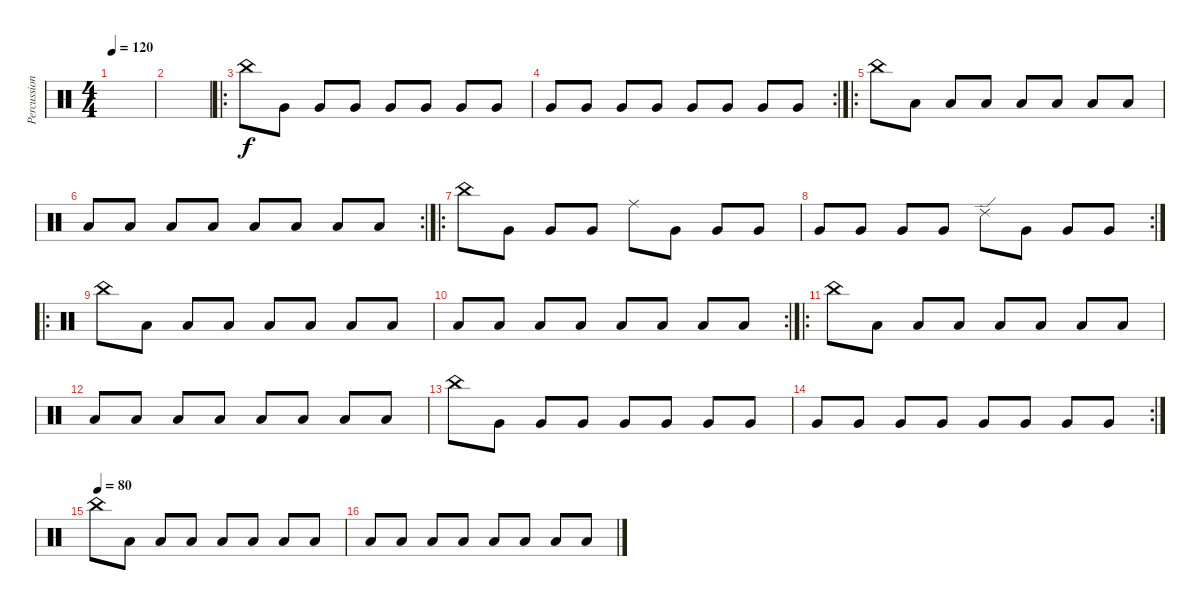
\track ("Percussion" "Percussion") {instrument percussion}
\staff {score}
\articulation defaults
\ts (4 4)
\tempo 120
\clef neutral
\ks c
|
|
\ro "China (hit)".8 "Very Low Tom (hit)".8 "Very Low Tom (hit)".8 "Very Low Tom (hit)".8 "Very Low Tom (hit)".8 "Very Low Tom (hit)".8 "Very Low Tom (hit)".8 "Very Low Tom (hit)".8
|
\rc 2 "Very Low Tom (hit)".8 "Very Low Tom (hit)".8 "Very Low Tom (hit)".8 "Very Low Tom (hit)".8 "Very Low Tom (hit)".8 "Very Low Tom (hit)".8 "Very Low Tom (hit)".8 "Very Low Tom (hit)".8
|
\ro "China (hit)".8 "Low Floor Tom (hit)".8 "Low Floor Tom (hit)".8 "Low Floor Tom (hit)".8 "Low Floor Tom (hit)".8 "Low Floor Tom (hit)".8 "Low Floor Tom (hit)".8 "Low Floor Tom (hit)".8
|
\rc 2 "Low Floor Tom (hit)".8 "Low Floor Tom (hit)".8 "Low Floor Tom (hit)".8 "Low Floor Tom (hit)".8 "Low Floor Tom (hit)".8 "Low Floor Tom (hit)".8 "Low Floor Tom (hit)".8 "Low Floor Tom (hit)".8
|
\ro "China (hit)".8 "Very Low Tom (hit)".8 "Very Low Tom (hit)".8 "Very Low Tom (hit)".8 "Ride (middle)".8 "Very Low Tom (hit)".8 "Very Low Tom (hit)".8 "Very Low Tom (hit)".8
|
\rc 2 "Very Low Tom (hit)".8 "Very Low Tom (hit)".8 "Very Low Tom (hit)".8 "Very Low Tom (hit)".8 "Ride (edge) 2".8 "Very Low Tom (hit)".8 "Very Low Tom (hit)".8 "Very Low Tom (hit)".8
|
\ro "China (hit)".8 "Low Floor Tom (hit)".8 "Low Floor Tom (hit)".8 "Low Floor Tom (hit)".8 "Low Floor Tom (hit)".8 "Low Floor Tom (hit)".8 "Low Floor Tom (hit)".8 "Low Floor Tom (hit)".8
|
\rc 2 "Low Floor Tom (hit)".8 "Low Floor Tom (hit)".8 "Low Floor Tom (hit)".8 "Low Floor Tom (hit)".8 "Low Floor Tom (hit)".8 "Low Floor Tom (hit)".8 "Low Floor Tom (hit)".8 "Low Floor Tom (hit)".8
|
\ro "China (hit)".8 "Low Floor Tom (hit)".8 "Low Floor Tom (hit)".8 "Low Floor Tom (hit)".8 "Low Floor Tom (hit)".8 "Low Floor Tom (hit)".8 "Low Floor Tom (hit)".8 "Low Floor Tom (hit)".8
|
"Low Floor Tom (hit)".8 "Low Floor Tom (hit)".8 "Low Floor Tom (hit)".8 "Low Floor Tom (hit)".8 "Low Floor Tom (hit)".8 "Low Floor Tom (hit)".8 "Low Floor Tom (hit)".8 "Low Floor Tom (hit)".8 |
"China (hit)".8 "Very Low Tom (hit)".8 "Very Low Tom (hit)".8 "Very Low Tom (hit)".8 "Very Low Tom (hit)".8 "Very Low Tom (hit)".8 "Very Low Tom (hit)".8 "Very Low Tom (hit)".8 |
\rc 2 "Very Low Tom (hit)".8 "Very Low Tom (hit)".8 "Very Low Tom (hit)".8 "Very Low Tom (hit)".8 "Very Low Tom (hit)".8 "Very Low Tom (hit)".8 "Very Low Tom (hit)".8 "Very Low Tom (hit)".8
|
\tempo (80)
"China (hit)".8 "Low Floor Tom (hit)".8 "Low Floor Tom (hit)".8 "Low Floor Tom (hit)".8 "Low Floor Tom (hit)".8 "Low Floor Tom (hit)".8 "Low Floor Tom (hit)".8 "Low Floor Tom (hit)".8 |
"Low Floor Tom (hit)".8 "Low Floor Tom (hit)".8 "Low Floor Tom (hit)".8 "Low Floor Tom (hit)".8 "Low Floor Tom (hit)".8 "Low Floor Tom (hit)".8 "Low Floor Tom (hit)".8 "Low Floor Tom (hit)".8
